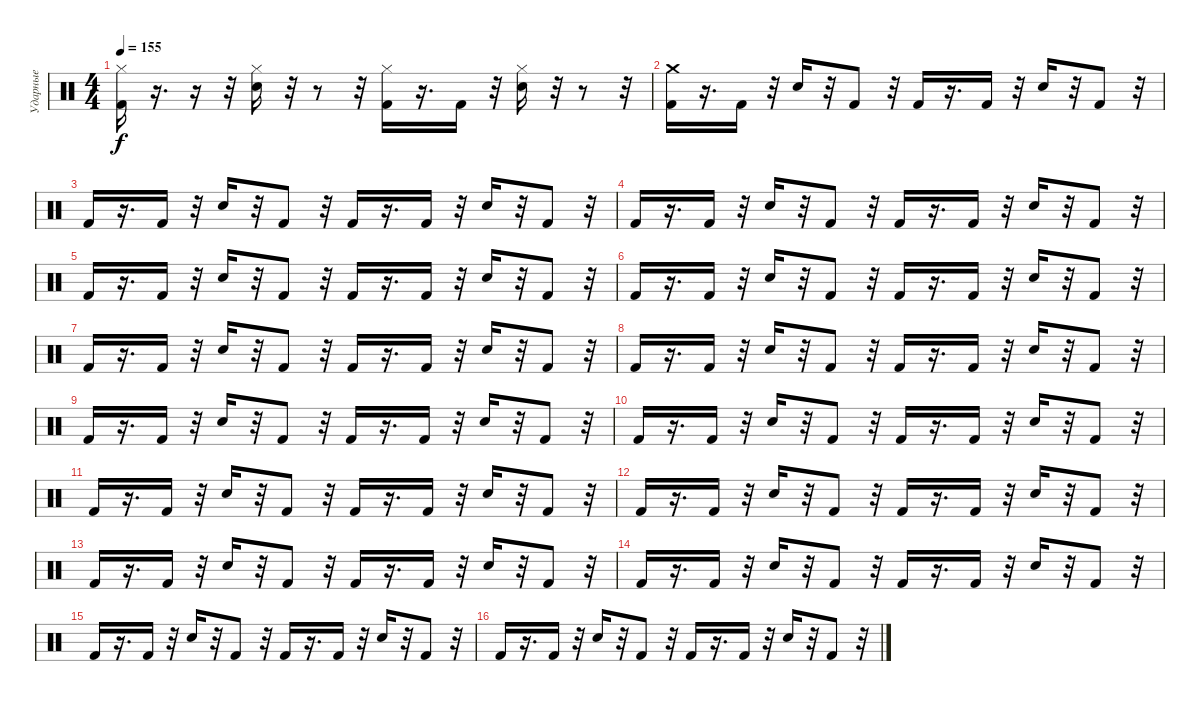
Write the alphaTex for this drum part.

\track ("Ударные" "Ударные") {instrument percussion}
\staff {score}
\articulation defaults
\ts (4 4)
\tempo 155
\clef neutral
\ks c
("Hi-Hat (closed)" "Kick (hit) 2").16{dy f} r.16{d} r.16 r.32 ("Snare (hit) 2" "Hi-Hat (closed)").16 r.32 r.8 r.32 ("Hi-Hat (closed)" "Kick (hit) 2").16 r.16{d} "Kick (hit) 2".16 r.32 ("Snare (hit) 2" "Hi-Hat (closed)").16 r.32 r.8 r.32 |
("Crash medium (hit)" "Kick (hit) 2").16 r.16{d} "Kick (hit) 2".16 r.32 "Snare (hit) 2".16 r.32 "Kick (hit) 2".8 r.32 "Kick (hit) 2".16 r.16{d} "Kick (hit) 2".16 r.32 "Snare (hit) 2".16 r.32 "Kick (hit) 2".8 r.32 |
"Kick (hit) 2".16 r.16{d} "Kick (hit) 2".16 r.32 "Snare (hit) 2".16 r.32 "Kick (hit) 2".8 r.32 "Kick (hit) 2".16 r.16{d} "Kick (hit) 2".16 r.32 "Snare (hit) 2".16 r.32 "Kick (hit) 2".8 r.32 |
"Kick (hit) 2".16 r.16{d} "Kick (hit) 2".16 r.32 "Snare (hit) 2".16 r.32 "Kick (hit) 2".8 r.32 "Kick (hit) 2".16 r.16{d} "Kick (hit) 2".16 r.32 "Snare (hit) 2".16 r.32 "Kick (hit) 2".8 r.32 |
"Kick (hit) 2".16 r.16{d} "Kick (hit) 2".16 r.32 "Snare (hit) 2".16 r.32 "Kick (hit) 2".8 r.32 "Kick (hit) 2".16 r.16{d} "Kick (hit) 2".16 r.32 "Snare (hit) 2".16 r.32 "Kick (hit) 2".8 r.32 |
"Kick (hit) 2".16 r.16{d} "Kick (hit) 2".16 r.32 "Snare (hit) 2".16 r.32 "Kick (hit) 2".8 r.32 "Kick (hit) 2".16 r.16{d} "Kick (hit) 2".16 r.32 "Snare (hit) 2".16 r.32 "Kick (hit) 2".8 r.32 |
"Kick (hit) 2".16 r.16{d} "Kick (hit) 2".16 r.32 "Snare (hit) 2".16 r.32 "Kick (hit) 2".8 r.32 "Kick (hit) 2".16 r.16{d} "Kick (hit) 2".16 r.32 "Snare (hit) 2".16 r.32 "Kick (hit) 2".8 r.32 |
"Kick (hit) 2".16 r.16{d} "Kick (hit) 2".16 r.32 "Snare (hit) 2".16 r.32 "Kick (hit) 2".8 r.32 "Kick (hit) 2".16 r.16{d} "Kick (hit) 2".16 r.32 "Snare (hit) 2".16 r.32 "Kick (hit) 2".8 r.32 |
"Kick (hit) 2".16 r.16{d} "Kick (hit) 2".16 r.32 "Snare (hit) 2".16 r.32 "Kick (hit) 2".8 r.32 "Kick (hit) 2".16 r.16{d} "Kick (hit) 2".16 r.32 "Snare (hit) 2".16 r.32 "Kick (hit) 2".8 r.32 |
"Kick (hit) 2".16 r.16{d} "Kick (hit) 2".16 r.32 "Snare (hit) 2".16 r.32 "Kick (hit) 2".8 r.32 "Kick (hit) 2".16 r.16{d} "Kick (hit) 2".16 r.32 "Snare (hit) 2".16 r.32 "Kick (hit) 2".8 r.32 |
"Kick (hit) 2".16 r.16{d} "Kick (hit) 2".16 r.32 "Snare (hit) 2".16 r.32 "Kick (hit) 2".8 r.32 "Kick (hit) 2".16 r.16{d} "Kick (hit) 2".16 r.32 "Snare (hit) 2".16 r.32 "Kick (hit) 2".8 r.32 |
"Kick (hit) 2".16 r.16{d} "Kick (hit) 2".16 r.32 "Snare (hit) 2".16 r.32 "Kick (hit) 2".8 r.32 "Kick (hit) 2".16 r.16{d} "Kick (hit) 2".16 r.32 "Snare (hit) 2".16 r.32 "Kick (hit) 2".8 r.32 |
"Kick (hit) 2".16 r.16{d} "Kick (hit) 2".16 r.32 "Snare (hit) 2".16 r.32 "Kick (hit) 2".8 r.32 "Kick (hit) 2".16 r.16{d} "Kick (hit) 2".16 r.32 "Snare (hit) 2".16 r.32 "Kick (hit) 2".8 r.32 |
"Kick (hit) 2".16 r.16{d} "Kick (hit) 2".16 r.32 "Snare (hit) 2".16 r.32 "Kick (hit) 2".8 r.32 "Kick (hit) 2".16 r.16{d} "Kick (hit) 2".16 r.32 "Snare (hit) 2".16 r.32 "Kick (hit) 2".8 r.32 |
"Kick (hit) 2".16 r.16{d} "Kick (hit) 2".16 r.32 "Snare (hit) 2".16 r.32 "Kick (hit) 2".8 r.32 "Kick (hit) 2".16 r.16{d} "Kick (hit) 2".16 r.32 "Snare (hit) 2".16 r.32 "Kick (hit) 2".8 r.32 |
"Kick (hit) 2".16 r.16{d} "Kick (hit) 2".16 r.32 "Snare (hit) 2".16 r.32 "Kick (hit) 2".8 r.32 "Kick (hit) 2".16 r.16{d} "Kick (hit) 2".16 r.32 "Snare (hit) 2".16 r.32 "Kick (hit) 2".8 r.32
